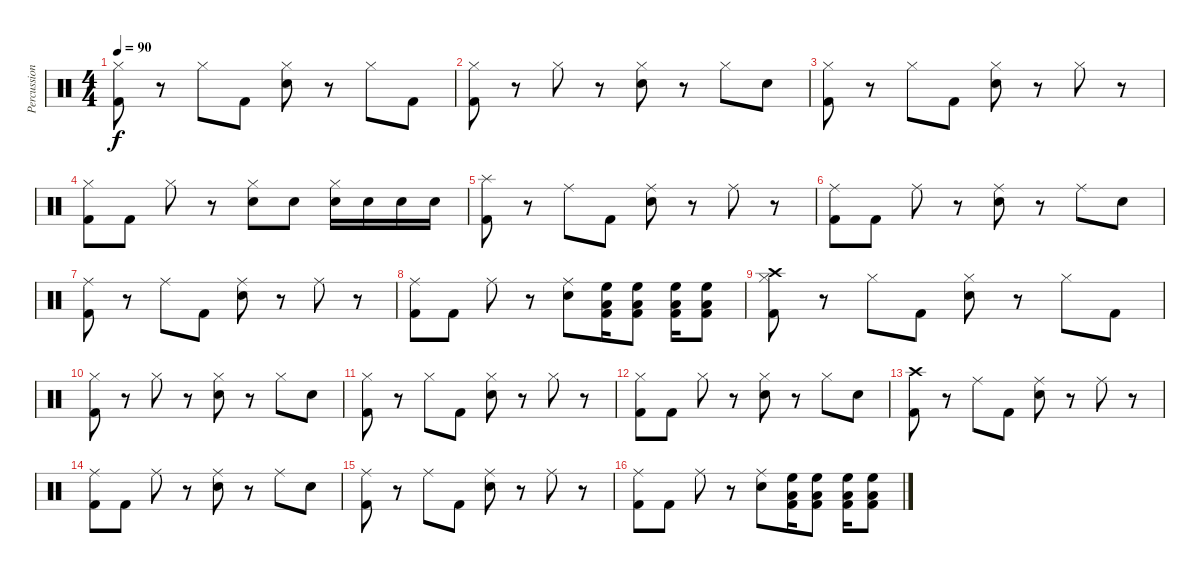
\track ("Percussion" "Percussion") {instrument percussion}
\staff {score}
\articulation defaults
\ts (4 4)
\tempo 90
\clef neutral
\ks c
("Kick (hit) 2" "Hi-Hat (closed)").8{dy f} r.8 "Hi-Hat (closed)".8 "Kick (hit) 2".8 ("Snare (hit) 2" "Hi-Hat (closed)").8 r.8 "Hi-Hat (closed)".8 "Kick (hit) 2".8 |
("Kick (hit) 2" "Hi-Hat (closed)").8 r.8 "Hi-Hat (closed)".8 r.8 ("Snare (hit) 2" "Hi-Hat (closed)").8 r.8 "Hi-Hat (closed)".8 "Snare (hit) 2".8 |
("Kick (hit) 2" "Hi-Hat (closed)").8 r.8 "Hi-Hat (closed)".8 "Kick (hit) 2".8 ("Snare (hit) 2" "Hi-Hat (closed)").8 r.8 "Hi-Hat (closed)".8 r.8 |
("Kick (hit) 2" "Hi-Hat (closed)").8 "Kick (hit) 2".8 "Hi-Hat (closed)".8 r.8 ("Snare (hit) 2" "Hi-Hat (closed)").8 "Snare (hit) 2".8 ("Snare (hit) 2" "Hi-Hat (closed)").16 "Snare (hit) 2".16 "Snare (hit) 2".16 "Snare (hit)"{x}.16 |
("Kick (hit) 2" "Splash (hit)").8 r.8 "Ride (middle)".8 "Kick (hit) 2".8 ("Snare (hit) 2" "Ride (middle)").8 r.8 "Ride (middle)".8 r.8 |
("Kick (hit) 2" "Ride (middle)").8 "Kick (hit) 2".8 "Ride (middle)".8 r.8 ("Snare (hit) 2" "Ride (middle)").8 r.8 "Ride (middle)".8 "Snare (hit) 2".8 |
("Kick (hit) 2" "Ride (middle)").8 r.8 "Ride (middle)".8 "Kick (hit) 2".8 ("Snare (hit) 2" "Ride (middle)").8 r.8 "Ride (middle)".8 r.8 |
("Kick (hit) 2" "Ride (middle)").8 "Kick (hit) 2".8 "Ride (middle)".8 r.8 ("Snare (hit) 2" "Ride (middle)").8 ("Kick (hit) 2" "Low Tom (hit)" "High Floor Tom (hit)").16 ("Kick (hit) 2" "Low Tom (hit)" "High Floor Tom (hit)").8 ("Low Tom (hit)" "High Floor Tom (hit)" "Kick (hit) 2").16 ("Low Tom (hit)" "High Floor Tom (hit)" "Kick (hit) 2").8 |
("Kick (hit) 2" "Hi-Hat (closed)" "Crash high (hit)").8 r.8 "Hi-Hat (closed)".8 "Kick (hit) 2".8 ("Snare (hit) 2" "Hi-Hat (closed)").8 r.8 "Hi-Hat (closed)".8 "Kick (hit) 2".8 |
("Kick (hit) 2" "Hi-Hat (closed)").8 r.8 "Hi-Hat (closed)".8 r.8 ("Snare (hit) 2" "Hi-Hat (closed)").8 r.8 "Hi-Hat (closed)".8 "Snare (hit) 2".8 |
("Kick (hit) 2" "Hi-Hat (closed)").8 r.8 "Hi-Hat (closed)".8 "Kick (hit) 2".8 ("Snare (hit) 2" "Hi-Hat (closed)").8 r.8 "Hi-Hat (closed)".8 r.8 |
("Kick (hit) 2" "Hi-Hat (closed)").8 "Kick (hit) 2".8 "Hi-Hat (closed)".8 r.8 ("Snare (hit) 2" "Hi-Hat (closed)").8 r.8 "Hi-Hat (closed)".8 "Snare (hit) 2".8 |
("Kick (hit) 2" "Crash high (hit)").8 r.8 "Ride (middle)".8 "Kick (hit) 2".8 ("Snare (hit) 2" "Ride (middle)").8 r.8 "Ride (middle)".8 r.8 |
("Kick (hit) 2" "Ride (middle)").8 "Kick (hit) 2".8 "Ride (middle)".8 r.8 ("Snare (hit) 2" "Ride (middle)").8 r.8 "Ride (middle)".8 "Snare (hit) 2".8 |
("Kick (hit) 2" "Ride (middle)").8 r.8 "Ride (middle)".8 "Kick (hit) 2".8 ("Snare (hit) 2" "Ride (middle)").8 r.8 "Ride (middle)".8 r.8 |
("Kick (hit) 2" "Ride (middle)").8 "Kick (hit) 2".8 "Ride (middle)".8 r.8 ("Snare (hit) 2" "Ride (middle)").8 ("Kick (hit) 2" "Low Tom (hit)" "High Floor Tom (hit)").16 ("Kick (hit) 2" "Low Tom (hit)" "High Floor Tom (hit)").8 ("Low Tom (hit)" "High Floor Tom (hit)" "Kick (hit) 2").16 ("Low Tom (hit)" "High Floor Tom (hit)" "Kick (hit) 2").8
